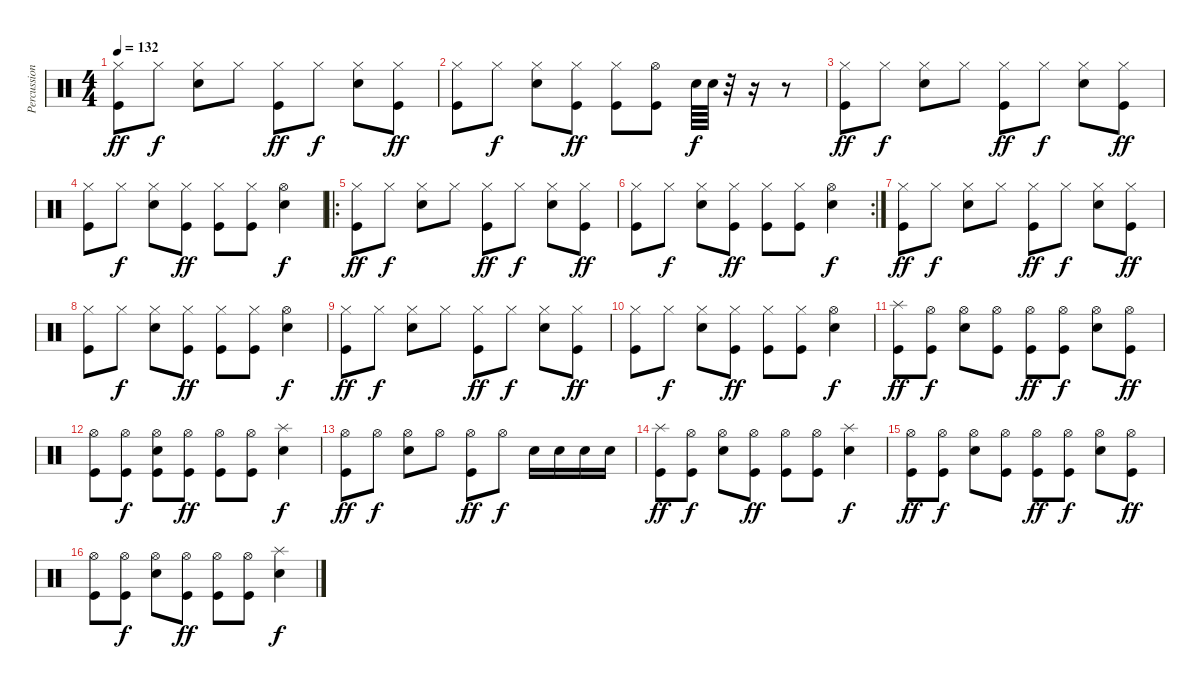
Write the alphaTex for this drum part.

\track ("Percussion" "Percussion") {instrument percussion}
\staff {score}
\articulation defaults
\ts (4 4)
\tempo 132
\clef neutral
\ks c
("Hi-Hat (closed)" "Kick (hit)").8{dy ff} "Hi-Hat (closed)".8{dy f} ("Hi-Hat (closed)" "Snare (hit) 2").8 "Hi-Hat (closed)".8 ("Hi-Hat (closed)" "Kick (hit)").8{dy ff} "Hi-Hat (closed)".8{dy f} ("Hi-Hat (closed)" "Snare (hit) 2").8 ("Hi-Hat (closed)" "Kick (hit)").8{dy ff} |
("Hi-Hat (closed)" "Kick (hit)").8 "Hi-Hat (closed)".8{dy f} ("Hi-Hat (closed)" "Snare (hit) 2").8 ("Hi-Hat (closed)" "Kick (hit)").8{dy ff} ("Hi-Hat (closed)" "Kick (hit)").8 ("Hi-Hat (open)" "Kick (hit)").8 "Snare (hit) 2".64{dy f} "Snare (hit) 2".64 r.32 r.16 r.8 |
("Hi-Hat (closed)" "Kick (hit)").8{dy ff} "Hi-Hat (closed)".8{dy f} ("Hi-Hat (closed)" "Snare (hit) 2").8 "Hi-Hat (closed)".8 ("Hi-Hat (closed)" "Kick (hit)").8{dy ff} "Hi-Hat (closed)".8{dy f} ("Hi-Hat (closed)" "Snare (hit) 2").8 ("Hi-Hat (closed)" "Kick (hit)").8{dy ff} |
("Hi-Hat (closed)" "Kick (hit)").8 "Hi-Hat (closed)".8{dy f} ("Hi-Hat (closed)" "Snare (hit) 2").8 ("Hi-Hat (closed)" "Kick (hit)").8{dy ff} ("Hi-Hat (closed)" "Kick (hit)").8 ("Hi-Hat (closed)" "Kick (hit)").8 ("Hi-Hat (open)" "Snare (hit) 2").4{dy f} |
\ro
("Hi-Hat (closed)" "Kick (hit)").8{dy ff} "Hi-Hat (closed)".8{dy f} ("Hi-Hat (closed)" "Snare (hit) 2").8 "Hi-Hat (closed)".8 ("Hi-Hat (closed)" "Kick (hit)").8{dy ff} "Hi-Hat (closed)".8{dy f} ("Hi-Hat (closed)" "Snare (hit) 2").8 ("Hi-Hat (closed)" "Kick (hit)").8{dy ff} |
\rc 2
("Hi-Hat (closed)" "Kick (hit)").8 "Hi-Hat (closed)".8{dy f} ("Hi-Hat (closed)" "Snare (hit) 2").8 ("Hi-Hat (closed)" "Kick (hit)").8{dy ff} ("Hi-Hat (closed)" "Kick (hit)").8 ("Hi-Hat (closed)" "Kick (hit)").8 ("Hi-Hat (open)" "Snare (hit) 2").4{dy f} |
("Hi-Hat (closed)" "Kick (hit)").8{dy ff} "Hi-Hat (closed)".8{dy f} ("Hi-Hat (closed)" "Snare (hit) 2").8 "Hi-Hat (closed)".8 ("Hi-Hat (closed)" "Kick (hit)").8{dy ff} "Hi-Hat (closed)".8{dy f} ("Hi-Hat (closed)" "Snare (hit) 2").8 ("Hi-Hat (closed)" "Kick (hit)").8{dy ff} |
("Hi-Hat (closed)" "Kick (hit)").8 "Hi-Hat (closed)".8{dy f} ("Hi-Hat (closed)" "Snare (hit) 2").8 ("Hi-Hat (closed)" "Kick (hit)").8{dy ff} ("Hi-Hat (closed)" "Kick (hit)").8 ("Hi-Hat (closed)" "Kick (hit)").8 ("Hi-Hat (open)" "Snare (hit) 2").4{dy f} |
("Hi-Hat (closed)" "Kick (hit)").8{dy ff} "Hi-Hat (closed)".8{dy f} ("Hi-Hat (closed)" "Snare (hit) 2").8 "Hi-Hat (closed)".8 ("Hi-Hat (closed)" "Kick (hit)").8{dy ff} "Hi-Hat (closed)".8{dy f} ("Hi-Hat (closed)" "Snare (hit) 2").8 ("Hi-Hat (closed)" "Kick (hit)").8{dy ff} |
("Hi-Hat (closed)" "Kick (hit)").8 "Hi-Hat (closed)".8{dy f} ("Hi-Hat (closed)" "Snare (hit) 2").8 ("Hi-Hat (closed)" "Kick (hit)").8{dy ff} ("Hi-Hat (closed)" "Kick (hit)").8 ("Hi-Hat (closed)" "Kick (hit)").8 ("Hi-Hat (open)" "Snare (hit) 2").4{dy f} |
("Splash (hit)" "Kick (hit)").8{dy ff} ("Hi-Hat (open)" "Kick (hit)").8{dy f} ("Hi-Hat (open)" "Snare (hit) 2").8 ("Hi-Hat (open)" "Kick (hit)").8 ("Hi-Hat (open)" "Kick (hit)").8{dy ff} ("Hi-Hat (open)" "Kick (hit)").8{dy f} ("Hi-Hat (open)" "Snare (hit) 2").8 ("Hi-Hat (open)" "Kick (hit)").8{dy ff} |
("Hi-Hat (open)" "Kick (hit)").8 ("Hi-Hat (open)" "Kick (hit)").8{dy f} ("Hi-Hat (open)" "Snare (hit) 2" "Kick (hit)").8 ("Hi-Hat (open)" "Kick (hit)").8{dy ff} ("Hi-Hat (open)" "Kick (hit)").8 ("Hi-Hat (open)" "Kick (hit)").8 ("Splash (hit)" "Snare (hit) 2").4{dy f} |
("Hi-Hat (open)" "Kick (hit)").8{dy ff} "Hi-Hat (open)".8{dy f} ("Hi-Hat (open)" "Snare (hit) 2").8 "Hi-Hat (open)".8 ("Hi-Hat (open)" "Kick (hit)").8{dy ff} "Hi-Hat (open)".8{dy f} "Snare (hit) 2".16 "Snare (hit) 2".16 "Snare (hit) 2".16 "Snare (hit) 2".16 |
("Splash (hit)" "Kick (hit)").8{dy ff} ("Hi-Hat (open)" "Kick (hit)").8{dy f} ("Hi-Hat (open)" "Snare (hit) 2").8 ("Hi-Hat (open)" "Kick (hit)").8{dy ff} ("Hi-Hat (open)" "Kick (hit)").8 ("Hi-Hat (open)" "Kick (hit)").8 ("Splash (hit)" "Snare (hit) 2").4{dy f} |
("Hi-Hat (open)" "Kick (hit)").8{dy ff} ("Hi-Hat (open)" "Kick (hit)").8{dy f} ("Hi-Hat (open)" "Snare (hit) 2").8 ("Hi-Hat (open)" "Kick (hit)").8 ("Hi-Hat (open)" "Kick (hit)").8{dy ff} ("Hi-Hat (open)" "Kick (hit)").8{dy f} ("Hi-Hat (open)" "Snare (hit) 2").8 ("Hi-Hat (open)" "Kick (hit)").8{dy ff} |
("Hi-Hat (open)" "Kick (hit)").8 ("Hi-Hat (open)" "Kick (hit)").8{dy f} ("Hi-Hat (open)" "Snare (hit) 2").8 ("Hi-Hat (open)" "Kick (hit)").8{dy ff} ("Hi-Hat (open)" "Kick (hit)").8 ("Hi-Hat (open)" "Kick (hit)").8 ("Splash (hit)" "Snare (hit) 2").4{dy f}
